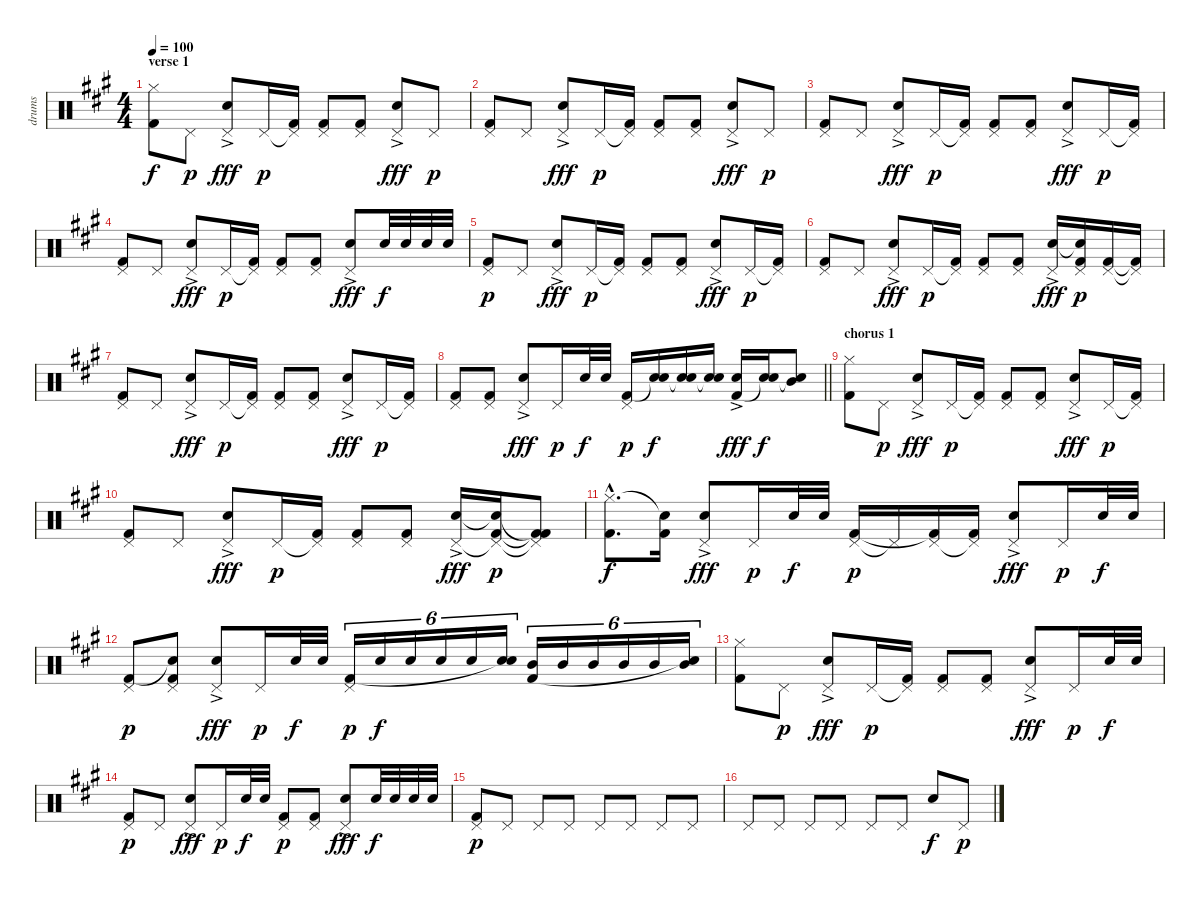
\track ("drums" "drums") {instrument percussion}
\staff {score}
\articulation defaults
\ts (4 4)
\section ("" "verse 1")
\tempo 100
\clef neutral
\ks a
("Hi-Hat (closed)" "Kick (hit) 2").8{dy f} "Pedal Hi-Hat (hit)".8{dy p} ("Pedal Hi-Hat (hit)" "Snare (hit) 2"{ac}).8{dy fff} "Pedal Hi-Hat (hit)".16{dy p} ("Pedal Hi-Hat (hit)"{t} "Kick (hit) 2").16 ("Pedal Hi-Hat (hit)" "Kick (hit) 2").8 ("Pedal Hi-Hat (hit)" "Kick (hit) 2").8 ("Pedal Hi-Hat (hit)" "Snare (hit) 2"{ac}).8{dy fff} "Pedal Hi-Hat (hit)".8{dy p} |
("Pedal Hi-Hat (hit)" "Kick (hit) 2").8 "Pedal Hi-Hat (hit)".8 ("Pedal Hi-Hat (hit)" "Snare (hit) 2"{ac}).8{dy fff} "Pedal Hi-Hat (hit)".16{dy p} ("Pedal Hi-Hat (hit)"{t} "Kick (hit) 2").16 ("Pedal Hi-Hat (hit)" "Kick (hit) 2").8 ("Pedal Hi-Hat (hit)" "Kick (hit) 2").8 ("Pedal Hi-Hat (hit)" "Snare (hit) 2"{ac}).8{dy fff} "Pedal Hi-Hat (hit)".8{dy p} |
("Pedal Hi-Hat (hit)" "Kick (hit) 2").8 "Pedal Hi-Hat (hit)".8 ("Pedal Hi-Hat (hit)" "Snare (hit) 2"{ac}).8{dy fff} "Pedal Hi-Hat (hit)".16{dy p} ("Pedal Hi-Hat (hit)"{t} "Kick (hit) 2").16 ("Pedal Hi-Hat (hit)" "Kick (hit) 2").8 ("Pedal Hi-Hat (hit)" "Kick (hit) 2").8 ("Pedal Hi-Hat (hit)" "Snare (hit) 2"{ac}).8{dy fff} "Pedal Hi-Hat (hit)".16{dy p} ("Pedal Hi-Hat (hit)"{t} "Kick (hit) 2").16 |
("Pedal Hi-Hat (hit)" "Kick (hit) 2").8 "Pedal Hi-Hat (hit)".8 ("Pedal Hi-Hat (hit)" "Snare (hit) 2"{ac}).8{dy fff} "Pedal Hi-Hat (hit)".16{dy p} ("Pedal Hi-Hat (hit)"{t} "Kick (hit) 2").16 ("Pedal Hi-Hat (hit)" "Kick (hit) 2").8 ("Pedal Hi-Hat (hit)" "Kick (hit) 2").8 ("Pedal Hi-Hat (hit)" "Snare (hit) 2"{ac}).8{dy fff} "Snare (hit) 2".32{dy f} "Snare (hit) 2".32 "Snare (hit) 2".32 "Snare (hit) 2".32 |
("Pedal Hi-Hat (hit)" "Kick (hit) 2").8{dy p} "Pedal Hi-Hat (hit)".8 ("Pedal Hi-Hat (hit)" "Snare (hit) 2"{ac}).8{dy fff} "Pedal Hi-Hat (hit)".16{dy p} ("Pedal Hi-Hat (hit)"{t} "Kick (hit) 2").16 ("Pedal Hi-Hat (hit)" "Kick (hit) 2").8 ("Pedal Hi-Hat (hit)" "Kick (hit) 2").8 ("Pedal Hi-Hat (hit)" "Snare (hit) 2"{ac}).8{dy fff} "Pedal Hi-Hat (hit)".16{dy p} ("Pedal Hi-Hat (hit)"{t} "Kick (hit) 2").16 |
("Pedal Hi-Hat (hit)" "Kick (hit) 2").8 "Pedal Hi-Hat (hit)".8 ("Pedal Hi-Hat (hit)" "Snare (hit) 2"{ac}).8{dy fff} "Pedal Hi-Hat (hit)".16{dy p} ("Pedal Hi-Hat (hit)"{t} "Kick (hit) 2").16 ("Pedal Hi-Hat (hit)" "Kick (hit) 2").8 ("Pedal Hi-Hat (hit)" "Kick (hit) 2").8 ("Pedal Hi-Hat (hit)" "Snare (hit) 2"{ac}).16{dy fff} ("Pedal Hi-Hat (hit)" "Snare (hit)"{t} "Kick (hit) 2").16{dy p} ("Pedal Hi-Hat (hit)" "Kick (hit) 2").16 ("Pedal Hi-Hat (hit)"{t} "Kick (hit) 2"{t}).16 |
("Pedal Hi-Hat (hit)" "Kick (hit) 2").8 "Pedal Hi-Hat (hit)".8 ("Pedal Hi-Hat (hit)" "Snare (hit) 2"{ac}).8{dy fff} "Pedal Hi-Hat (hit)".16{dy p} ("Pedal Hi-Hat (hit)"{t} "Kick (hit) 2").16 ("Pedal Hi-Hat (hit)" "Kick (hit) 2").8 ("Pedal Hi-Hat (hit)" "Kick (hit) 2").8 ("Pedal Hi-Hat (hit)" "Snare (hit) 2"{ac}).8{dy fff} "Pedal Hi-Hat (hit)".16{dy p} ("Pedal Hi-Hat (hit)"{t} "Kick (hit) 2").16 |
\barLineRight lightlight
("Pedal Hi-Hat (hit)" "Kick (hit) 2").8 ("Pedal Hi-Hat (hit)" "Kick (hit) 2").8 ("Pedal Hi-Hat (hit)" "Snare (hit) 2"{ac}).8{dy fff} "Pedal Hi-Hat (hit)".16{dy p} "Snare (hit) 2".32{dy f} "Snare (hit) 2".32 ("Pedal Hi-Hat (hit)" "Kick (hit) 2").16{dy p} ("Snare (hit) 2" "Snare (hit)"{t}).16{dy f} ("Snare (hit) 2" "Snare (hit)"{t}).16 ("Snare (hit) 2" "Snare (hit)"{t}).16 ("Snare (hit) 2"{ac} "Kick (hit) 2").16{dy fff} ("Snare (hit) 2" "Snare (hit)"{t}).16{dy f} ("Mid Tom (hit)" "Snare (hit)"{t}).8 |
\section ("" "chorus 1")
("Hi-Hat (closed)" "Kick (hit) 2").8 "Pedal Hi-Hat (hit)".8{dy p} ("Pedal Hi-Hat (hit)" "Snare (hit) 2"{ac}).8{dy fff} "Pedal Hi-Hat (hit)".16{dy p} ("Pedal Hi-Hat (hit)"{t} "Kick (hit) 2").16 ("Pedal Hi-Hat (hit)" "Kick (hit) 2").8 ("Pedal Hi-Hat (hit)" "Kick (hit) 2").8 ("Pedal Hi-Hat (hit)" "Snare (hit) 2"{ac}).8{dy fff} "Pedal Hi-Hat (hit)".16{dy p} ("Pedal Hi-Hat (hit)"{t} "Kick (hit) 2").16 |
("Pedal Hi-Hat (hit)" "Kick (hit) 2").8 "Pedal Hi-Hat (hit)".8 ("Pedal Hi-Hat (hit)" "Snare (hit) 2"{ac}).8{dy fff} "Pedal Hi-Hat (hit)".16{dy p} ("Pedal Hi-Hat (hit)"{t} "Kick (hit) 2").16 ("Pedal Hi-Hat (hit)" "Kick (hit) 2").8 ("Pedal Hi-Hat (hit)" "Kick (hit) 2").8 ("Pedal Hi-Hat (hit)" "Snare (hit) 2"{ac}).16{dy fff} ("Pedal Hi-Hat (hit)"{t} "Snare (hit)"{t} "Kick (hit) 2").16{dy p} ("Pedal Hi-Hat (hit)"{t} "Kick (hit) 2"{t} "Kick (hit) 2"{t}).8 |
("Hi-Hat (closed)"{hac} "Kick (hit) 2"{hac}).8{d dy f} ("Snare (hit)"{t} "Kick (hit) 2").16 ("Pedal Hi-Hat (hit)" "Snare (hit) 2"{ac}).8{dy fff} "Pedal Hi-Hat (hit)".16{dy p} "Snare (hit) 2".32{dy f} "Snare (hit) 2".32 ("Pedal Hi-Hat (hit)" "Kick (hit) 2").16{dy p} "Pedal Hi-Hat (hit)"{t}.16 ("Pedal Hi-Hat (hit)" "Kick (hit) 2"{t}).16 ("Pedal Hi-Hat (hit)"{t} "Kick (hit) 2").16 ("Pedal Hi-Hat (hit)" "Snare (hit) 2"{ac}).8{dy fff} "Pedal Hi-Hat (hit)".16{dy p} "Snare (hit) 2".32{dy f} "Snare (hit) 2".32 |
("Pedal Hi-Hat (hit)" "Kick (hit) 2").8{dy p} ("Pedal Hi-Hat (hit)" "Snare (hit)"{t} "Kick (hit) 2").8 ("Pedal Hi-Hat (hit)" "Snare (hit) 2"{ac}).8{dy fff} "Pedal Hi-Hat (hit)".16{dy p} "Snare (hit) 2".32{dy f} "Snare (hit) 2".32 ("Pedal Hi-Hat (hit)" "Kick (hit) 2").16{tu (6 4) dy p} "Snare (hit) 2".16{tu (6 4) dy f} "Snare (hit) 2".16{tu (6 4)} "Snare (hit) 2".16{tu (6 4)} "Snare (hit) 2".16{tu (6 4)} ("Snare (hit) 2" "Snare (hit)"{t}).16{tu (6 4)} ("Mid Tom (hit)" "Kick (hit) 2").16{tu (6 4)} "Mid Tom (hit)".16{tu (6 4)} "Mid Tom (hit)".16{tu (6 4)} "Mid Tom (hit)".16{tu (6 4)} "Mid Tom (hit)".16{tu (6 4)} ("Mid Tom (hit)" "Snare (hit)"{t}).16{tu (6 4)} |
("Hi-Hat (closed)" "Kick (hit) 2").8 "Pedal Hi-Hat (hit)".8{dy p} ("Pedal Hi-Hat (hit)" "Snare (hit) 2"{ac}).8{dy fff} "Pedal Hi-Hat (hit)".16{dy p} ("Pedal Hi-Hat (hit)"{t} "Kick (hit) 2").16 ("Pedal Hi-Hat (hit)" "Kick (hit) 2").8 ("Pedal Hi-Hat (hit)" "Kick (hit) 2").8 ("Pedal Hi-Hat (hit)" "Snare (hit) 2"{ac}).8{dy fff} "Pedal Hi-Hat (hit)".16{dy p} "Snare (hit) 2".32{dy f} "Snare (hit) 2".32 |
("Pedal Hi-Hat (hit)" "Kick (hit) 2").8{dy p} "Pedal Hi-Hat (hit)".8 ("Pedal Hi-Hat (hit)" "Snare (hit) 2"{ac}).8{dy fff} "Pedal Hi-Hat (hit)".16{dy p} "Snare (hit) 2".32{dy f} "Snare (hit) 2".32 ("Pedal Hi-Hat (hit)" "Kick (hit) 2").8{dy p} ("Pedal Hi-Hat (hit)" "Kick (hit) 2").8 ("Pedal Hi-Hat (hit)" "Snare (hit) 2"{ac}).8{dy fff} "Snare (hit) 2".32{dy f} "Snare (hit) 2".32 "Snare (hit) 2".32 "Snare (hit) 2".32 |
("Pedal Hi-Hat (hit)" "Kick (hit) 2").8{dy p} "Pedal Hi-Hat (hit)".8 "Pedal Hi-Hat (hit)".8 "Pedal Hi-Hat (hit)".8 "Pedal Hi-Hat (hit)".8 "Pedal Hi-Hat (hit)".8 "Pedal Hi-Hat (hit)".8 "Pedal Hi-Hat (hit)".8 |
"Pedal Hi-Hat (hit)".8 "Pedal Hi-Hat (hit)".8 "Pedal Hi-Hat (hit)".8 "Pedal Hi-Hat (hit)".8 "Pedal Hi-Hat (hit)".8 "Pedal Hi-Hat (hit)".8 "Snare (hit) 2".8{dy f} "Pedal Hi-Hat (hit)".8{dy p}
